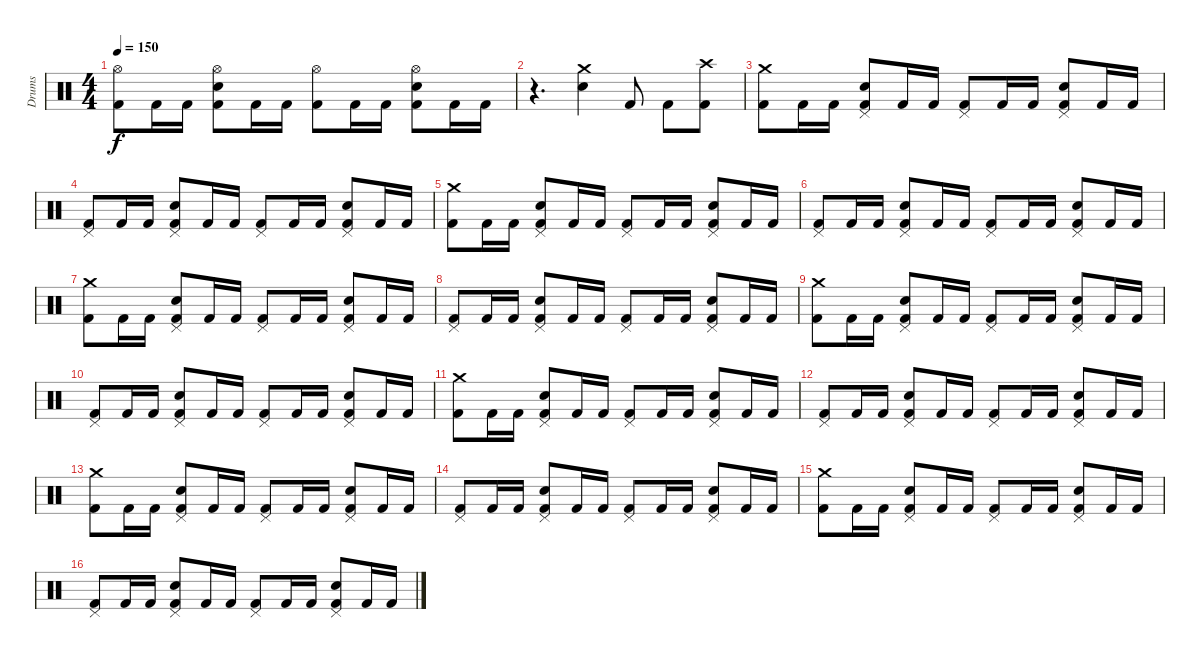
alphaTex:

\track ("Drums" "Drums") {instrument percussion}
\staff {score}
\articulation defaults
\ts (4 4)
\tempo 150
\clef neutral
\ks c
("Hi-Hat (open)" "Kick (hit) 2").8{dy f} "Kick (hit) 2".16 "Kick (hit) 2".16 ("Hi-Hat (open)" "Electric Snare (hit)" "Kick (hit) 2").8 "Kick (hit) 2".16 "Kick (hit) 2".16 ("Hi-Hat (open)" "Kick (hit) 2").8 "Kick (hit) 2".16 "Kick (hit) 2".16 ("Hi-Hat (open)" "Electric Snare (hit)" "Kick (hit) 2").8 "Kick (hit) 2".16 "Kick (hit) 2".16 |
r.4{d} ("Crash medium (hit)" "Electric Snare (hit)").4 "Kick (hit) 2".8 "Kick (hit) 2".8 ("Crash high (hit)" "Kick (hit) 2").8 |
("Crash medium (hit)" "Kick (hit) 2").8 "Kick (hit) 2".16 "Kick (hit) 2".16 ("Pedal Hi-Hat (hit)" "Electric Snare (hit)" "Kick (hit) 2").8 "Kick (hit) 2".16 "Kick (hit) 2".16 ("Pedal Hi-Hat (hit)" "Kick (hit) 2").8 "Kick (hit) 2".16 "Kick (hit) 2".16 ("Pedal Hi-Hat (hit)" "Electric Snare (hit)" "Kick (hit) 2").8 "Kick (hit) 2".16 "Kick (hit) 2".16 |
("Pedal Hi-Hat (hit)" "Kick (hit) 2").8 "Kick (hit) 2".16 "Kick (hit) 2".16 ("Pedal Hi-Hat (hit)" "Electric Snare (hit)" "Kick (hit) 2").8 "Kick (hit) 2".16 "Kick (hit) 2".16 ("Pedal Hi-Hat (hit)" "Kick (hit) 2").8 "Kick (hit) 2".16 "Kick (hit) 2".16 ("Pedal Hi-Hat (hit)" "Electric Snare (hit)" "Kick (hit) 2").8 "Kick (hit) 2".16 "Kick (hit) 2".16 |
("Crash medium (hit)" "Kick (hit) 2").8 "Kick (hit) 2".16 "Kick (hit) 2".16 ("Pedal Hi-Hat (hit)" "Electric Snare (hit)" "Kick (hit) 2").8 "Kick (hit) 2".16 "Kick (hit) 2".16 ("Pedal Hi-Hat (hit)" "Kick (hit) 2").8 "Kick (hit) 2".16 "Kick (hit) 2".16 ("Pedal Hi-Hat (hit)" "Electric Snare (hit)" "Kick (hit) 2").8 "Kick (hit) 2".16 "Kick (hit) 2".16 |
("Pedal Hi-Hat (hit)" "Kick (hit) 2").8 "Kick (hit) 2".16 "Kick (hit) 2".16 ("Pedal Hi-Hat (hit)" "Electric Snare (hit)" "Kick (hit) 2").8 "Kick (hit) 2".16 "Kick (hit) 2".16 ("Pedal Hi-Hat (hit)" "Kick (hit) 2").8 "Kick (hit) 2".16 "Kick (hit) 2".16 ("Pedal Hi-Hat (hit)" "Electric Snare (hit)" "Kick (hit) 2").8 "Kick (hit) 2".16 "Kick (hit) 2".16 |
("Crash medium (hit)" "Kick (hit) 2").8 "Kick (hit) 2".16 "Kick (hit) 2".16 ("Pedal Hi-Hat (hit)" "Electric Snare (hit)" "Kick (hit) 2").8 "Kick (hit) 2".16 "Kick (hit) 2".16 ("Pedal Hi-Hat (hit)" "Kick (hit) 2").8 "Kick (hit) 2".16 "Kick (hit) 2".16 ("Pedal Hi-Hat (hit)" "Electric Snare (hit)" "Kick (hit) 2").8 "Kick (hit) 2".16 "Kick (hit) 2".16 |
("Pedal Hi-Hat (hit)" "Kick (hit) 2").8 "Kick (hit) 2".16 "Kick (hit) 2".16 ("Pedal Hi-Hat (hit)" "Electric Snare (hit)" "Kick (hit) 2").8 "Kick (hit) 2".16 "Kick (hit) 2".16 ("Pedal Hi-Hat (hit)" "Kick (hit) 2").8 "Kick (hit) 2".16 "Kick (hit) 2".16 ("Pedal Hi-Hat (hit)" "Electric Snare (hit)" "Kick (hit) 2").8 "Kick (hit) 2".16 "Kick (hit) 2".16 |
("Crash medium (hit)" "Kick (hit) 2").8 "Kick (hit) 2".16 "Kick (hit) 2".16 ("Pedal Hi-Hat (hit)" "Electric Snare (hit)" "Kick (hit) 2").8 "Kick (hit) 2".16 "Kick (hit) 2".16 ("Pedal Hi-Hat (hit)" "Kick (hit) 2").8 "Kick (hit) 2".16 "Kick (hit) 2".16 ("Pedal Hi-Hat (hit)" "Electric Snare (hit)" "Kick (hit) 2").8 "Kick (hit) 2".16 "Kick (hit) 2".16 |
("Pedal Hi-Hat (hit)" "Kick (hit) 2").8 "Kick (hit) 2".16 "Kick (hit) 2".16 ("Pedal Hi-Hat (hit)" "Electric Snare (hit)" "Kick (hit) 2").8 "Kick (hit) 2".16 "Kick (hit) 2".16 ("Pedal Hi-Hat (hit)" "Kick (hit) 2").8 "Kick (hit) 2".16 "Kick (hit) 2".16 ("Pedal Hi-Hat (hit)" "Electric Snare (hit)" "Kick (hit) 2").8 "Kick (hit) 2".16 "Kick (hit) 2".16 |
("Crash medium (hit)" "Kick (hit) 2").8 "Kick (hit) 2".16 "Kick (hit) 2".16 ("Pedal Hi-Hat (hit)" "Electric Snare (hit)" "Kick (hit) 2").8 "Kick (hit) 2".16 "Kick (hit) 2".16 ("Pedal Hi-Hat (hit)" "Kick (hit) 2").8 "Kick (hit) 2".16 "Kick (hit) 2".16 ("Pedal Hi-Hat (hit)" "Electric Snare (hit)" "Kick (hit) 2").8 "Kick (hit) 2".16 "Kick (hit) 2".16 |
("Pedal Hi-Hat (hit)" "Kick (hit) 2").8 "Kick (hit) 2".16 "Kick (hit) 2".16 ("Pedal Hi-Hat (hit)" "Electric Snare (hit)" "Kick (hit) 2").8 "Kick (hit) 2".16 "Kick (hit) 2".16 ("Pedal Hi-Hat (hit)" "Kick (hit) 2").8 "Kick (hit) 2".16 "Kick (hit) 2".16 ("Pedal Hi-Hat (hit)" "Electric Snare (hit)" "Kick (hit) 2").8 "Kick (hit) 2".16 "Kick (hit) 2".16 |
("Crash medium (hit)" "Kick (hit) 2").8 "Kick (hit) 2".16 "Kick (hit) 2".16 ("Pedal Hi-Hat (hit)" "Electric Snare (hit)" "Kick (hit) 2").8 "Kick (hit) 2".16 "Kick (hit) 2".16 ("Pedal Hi-Hat (hit)" "Kick (hit) 2").8 "Kick (hit) 2".16 "Kick (hit) 2".16 ("Pedal Hi-Hat (hit)" "Electric Snare (hit)" "Kick (hit) 2").8 "Kick (hit) 2".16 "Kick (hit) 2".16 |
("Pedal Hi-Hat (hit)" "Kick (hit) 2").8 "Kick (hit) 2".16 "Kick (hit) 2".16 ("Pedal Hi-Hat (hit)" "Electric Snare (hit)" "Kick (hit) 2").8 "Kick (hit) 2".16 "Kick (hit) 2".16 ("Pedal Hi-Hat (hit)" "Kick (hit) 2").8 "Kick (hit) 2".16 "Kick (hit) 2".16 ("Pedal Hi-Hat (hit)" "Electric Snare (hit)" "Kick (hit) 2").8 "Kick (hit) 2".16 "Kick (hit) 2".16 |
("Crash medium (hit)" "Kick (hit) 2").8 "Kick (hit) 2".16 "Kick (hit) 2".16 ("Pedal Hi-Hat (hit)" "Electric Snare (hit)" "Kick (hit) 2").8 "Kick (hit) 2".16 "Kick (hit) 2".16 ("Pedal Hi-Hat (hit)" "Kick (hit) 2").8 "Kick (hit) 2".16 "Kick (hit) 2".16 ("Pedal Hi-Hat (hit)" "Electric Snare (hit)" "Kick (hit) 2").8 "Kick (hit) 2".16 "Kick (hit) 2".16 |
("Pedal Hi-Hat (hit)" "Kick (hit) 2").8 "Kick (hit) 2".16 "Kick (hit) 2".16 ("Pedal Hi-Hat (hit)" "Electric Snare (hit)" "Kick (hit) 2").8 "Kick (hit) 2".16 "Kick (hit) 2".16 ("Pedal Hi-Hat (hit)" "Kick (hit) 2").8 "Kick (hit) 2".16 "Kick (hit) 2".16 ("Pedal Hi-Hat (hit)" "Electric Snare (hit)" "Kick (hit) 2").8 "Kick (hit) 2".16 "Kick (hit) 2".16
